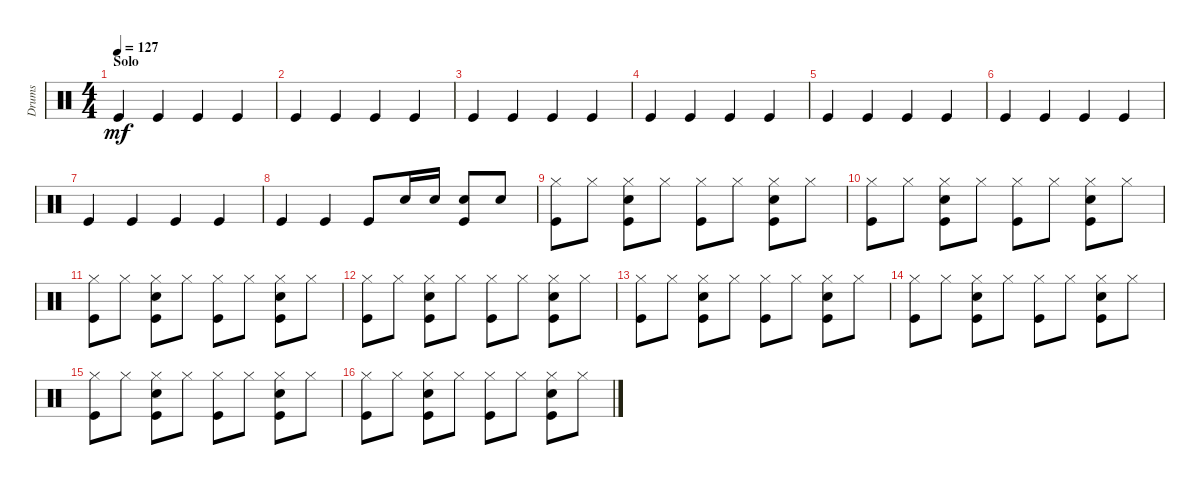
\track ("Drums" "Drums") {instrument percussion}
\staff {score}
\articulation defaults
\ts (4 4)
\section ("" "Solo")
\tempo 127
\clef neutral
\ks c "Kick (hit)".4{dy mf} "Kick (hit)".4 "Kick (hit)".4 "Kick (hit)".4
|
"Kick (hit)".4 "Kick (hit)".4 "Kick (hit)".4 "Kick (hit)".4 |
"Kick (hit)".4 "Kick (hit)".4 "Kick (hit)".4 "Kick (hit)".4 |
"Kick (hit)".4 "Kick (hit)".4 "Kick (hit)".4 "Kick (hit)".4 |
"Kick (hit)".4 "Kick (hit)".4 "Kick (hit)".4 "Kick (hit)".4 |
"Kick (hit)".4 "Kick (hit)".4 "Kick (hit)".4 "Kick (hit)".4 |
"Kick (hit)".4 "Kick (hit)".4 "Kick (hit)".4 "Kick (hit)".4 |
"Kick (hit)".4 "Kick (hit)".4 "Kick (hit)".8 "Snare (hit) 2".16 "Snare (hit) 2".16 ("Kick (hit)" "Snare (hit) 2").8 "Snare (hit) 2".8 |
("Kick (hit)" "Hi-Hat (closed)").8 "Hi-Hat (closed)".8 ("Hi-Hat (closed)" "Snare (hit) 2" "Kick (hit)").8 "Hi-Hat (closed)".8 ("Hi-Hat (closed)" "Kick (hit)").8 "Hi-Hat (closed)".8 ("Hi-Hat (closed)" "Snare (hit) 2" "Kick (hit)").8 "Hi-Hat (closed)".8 |
("Kick (hit)" "Hi-Hat (closed)").8 "Hi-Hat (closed)".8 ("Hi-Hat (closed)" "Snare (hit) 2" "Kick (hit)").8 "Hi-Hat (closed)".8 ("Hi-Hat (closed)" "Kick (hit)").8 "Hi-Hat (closed)".8 ("Hi-Hat (closed)" "Snare (hit) 2" "Kick (hit)").8 "Hi-Hat (closed)".8 |
("Kick (hit)" "Hi-Hat (closed)").8 "Hi-Hat (closed)".8 ("Hi-Hat (closed)" "Snare (hit) 2" "Kick (hit)").8 "Hi-Hat (closed)".8 ("Hi-Hat (closed)" "Kick (hit)").8 "Hi-Hat (closed)".8 ("Hi-Hat (closed)" "Snare (hit) 2" "Kick (hit)").8 "Hi-Hat (closed)".8 |
("Kick (hit)" "Hi-Hat (closed)").8 "Hi-Hat (closed)".8 ("Hi-Hat (closed)" "Snare (hit) 2" "Kick (hit)").8 "Hi-Hat (closed)".8 ("Hi-Hat (closed)" "Kick (hit)").8 "Hi-Hat (closed)".8 ("Hi-Hat (closed)" "Snare (hit) 2" "Kick (hit)").8 "Hi-Hat (closed)".8 |
("Kick (hit)" "Hi-Hat (closed)").8 "Hi-Hat (closed)".8 ("Hi-Hat (closed)" "Snare (hit) 2" "Kick (hit)").8 "Hi-Hat (closed)".8 ("Hi-Hat (closed)" "Kick (hit)").8 "Hi-Hat (closed)".8 ("Hi-Hat (closed)" "Snare (hit) 2" "Kick (hit)").8 "Hi-Hat (closed)".8 |
("Kick (hit)" "Hi-Hat (closed)").8 "Hi-Hat (closed)".8 ("Hi-Hat (closed)" "Snare (hit) 2" "Kick (hit)").8 "Hi-Hat (closed)".8 ("Hi-Hat (closed)" "Kick (hit)").8 "Hi-Hat (closed)".8 ("Hi-Hat (closed)" "Snare (hit) 2" "Kick (hit)").8 "Hi-Hat (closed)".8 |
("Kick (hit)" "Hi-Hat (closed)").8 "Hi-Hat (closed)".8 ("Hi-Hat (closed)" "Snare (hit) 2" "Kick (hit)").8 "Hi-Hat (closed)".8 ("Hi-Hat (closed)" "Kick (hit)").8 "Hi-Hat (closed)".8 ("Hi-Hat (closed)" "Snare (hit) 2" "Kick (hit)").8 "Hi-Hat (closed)".8 |
("Kick (hit)" "Hi-Hat (closed)").8 "Hi-Hat (closed)".8 ("Hi-Hat (closed)" "Snare (hit) 2" "Kick (hit)").8 "Hi-Hat (closed)".8 ("Hi-Hat (closed)" "Kick (hit)").8 "Hi-Hat (closed)".8 ("Hi-Hat (closed)" "Snare (hit) 2" "Kick (hit)").8 "Hi-Hat (closed)".8
